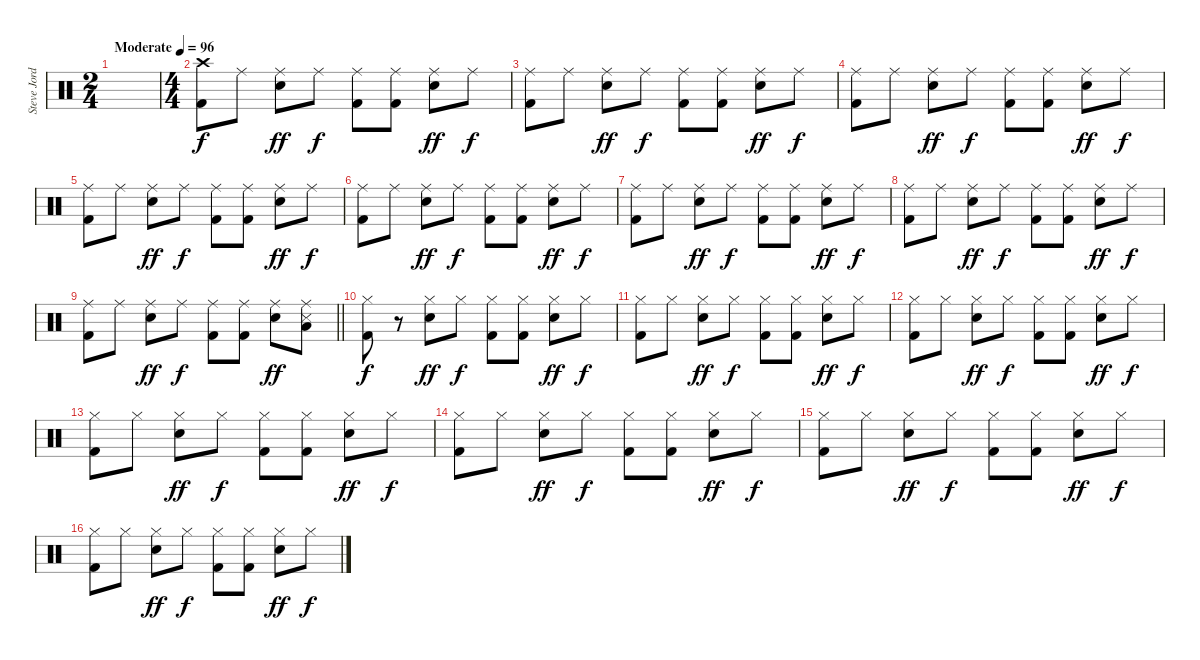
\track ("Steve Jordan" "Steve Jord") {instrument percussion}
\staff {score}
\articulation defaults
\ts (2 4)
\tempo (96 "Moderate")
\clef neutral
\ks c
|
\ts (4 4)
("Crash high (hit)" "Kick (hit) 2").8 "Ride (middle)".8 ("Ride (middle)" "Snare (hit) 2").8{dy ff} "Ride (middle)".8{dy f} ("Ride (middle)" "Kick (hit) 2").8 ("Ride (middle)" "Kick (hit) 2").8 ("Ride (middle)" "Snare (hit) 2").8{dy ff} "Ride (middle)".8{dy f} |
("Ride (middle)" "Kick (hit) 2").8 "Ride (middle)".8 ("Ride (middle)" "Snare (hit) 2").8{dy ff} "Ride (middle)".8{dy f} ("Ride (middle)" "Kick (hit) 2").8 ("Ride (middle)" "Kick (hit) 2").8 ("Ride (middle)" "Snare (hit) 2").8{dy ff} "Ride (middle)".8{dy f} |
("Ride (middle)" "Kick (hit) 2").8 "Ride (middle)".8 ("Ride (middle)" "Snare (hit) 2").8{dy ff} "Ride (middle)".8{dy f} ("Ride (middle)" "Kick (hit) 2").8 ("Ride (middle)" "Kick (hit) 2").8 ("Ride (middle)" "Snare (hit) 2").8{dy ff} "Ride (middle)".8{dy f} |
("Ride (middle)" "Kick (hit) 2").8 "Ride (middle)".8 ("Ride (middle)" "Snare (hit) 2").8{dy ff} "Ride (middle)".8{dy f} ("Ride (middle)" "Kick (hit) 2").8 ("Ride (middle)" "Kick (hit) 2").8 ("Ride (middle)" "Snare (hit) 2").8{dy ff} "Ride (middle)".8{dy f} |
("Ride (middle)" "Kick (hit) 2").8 "Ride (middle)".8 ("Ride (middle)" "Snare (hit) 2").8{dy ff} "Ride (middle)".8{dy f} ("Ride (middle)" "Kick (hit) 2").8 ("Ride (middle)" "Kick (hit) 2").8 ("Ride (middle)" "Snare (hit) 2").8{dy ff} "Ride (middle)".8{dy f} |
("Ride (middle)" "Kick (hit) 2").8 "Ride (middle)".8 ("Ride (middle)" "Snare (hit) 2").8{dy ff} "Ride (middle)".8{dy f} ("Ride (middle)" "Kick (hit) 2").8 ("Ride (middle)" "Kick (hit) 2").8 ("Ride (middle)" "Snare (hit) 2").8{dy ff} "Ride (middle)".8{dy f} |
("Ride (middle)" "Kick (hit) 2").8 "Ride (middle)".8 ("Ride (middle)" "Snare (hit) 2").8{dy ff} "Ride (middle)".8{dy f} ("Ride (middle)" "Kick (hit) 2").8 ("Ride (middle)" "Kick (hit) 2").8 ("Ride (middle)" "Snare (hit) 2").8{dy ff} "Ride (middle)".8{dy f} |
\barLineRight lightlight
("Ride (middle)" "Kick (hit) 2").8 "Ride (middle)".8 ("Ride (middle)" "Snare (hit) 2").8{dy ff} "Ride (middle)".8{dy f} ("Ride (middle)" "Kick (hit) 2").8 ("Ride (middle)" "Kick (hit) 2").8 ("Ride (middle)" "Snare (hit) 2").8{dy ff} ("Ride (middle)" "Low Tom (hit)" "Snare (side stick) 3").8 |
("Hi-Hat (closed)" "Kick (hit) 2").8{dy f} r.8 ("Hi-Hat (closed)" "Snare (hit) 2").8{dy ff} "Hi-Hat (closed)".8{dy f} ("Hi-Hat (closed)" "Kick (hit) 2").8 ("Hi-Hat (closed)" "Kick (hit) 2").8 ("Hi-Hat (closed)" "Snare (hit) 2").8{dy ff} "Hi-Hat (closed)".8{dy f} |
("Hi-Hat (closed)" "Kick (hit) 2").8 "Hi-Hat (closed)".8 ("Hi-Hat (closed)" "Snare (hit) 2").8{dy ff} "Hi-Hat (closed)".8{dy f} ("Hi-Hat (closed)" "Kick (hit) 2").8 ("Hi-Hat (closed)" "Kick (hit) 2").8 ("Hi-Hat (closed)" "Snare (hit) 2").8{dy ff} "Hi-Hat (closed)".8{dy f} |
("Hi-Hat (closed)" "Kick (hit) 2").8 "Hi-Hat (closed)".8 ("Hi-Hat (closed)" "Snare (hit) 2").8{dy ff} "Hi-Hat (closed)".8{dy f} ("Hi-Hat (closed)" "Kick (hit) 2").8 ("Hi-Hat (closed)" "Kick (hit) 2").8 ("Hi-Hat (closed)" "Snare (hit) 2").8{dy ff} "Hi-Hat (closed)".8{dy f} |
("Hi-Hat (closed)" "Kick (hit) 2").8 "Hi-Hat (closed)".8 ("Hi-Hat (closed)" "Snare (hit) 2").8{dy ff} "Hi-Hat (closed)".8{dy f} ("Hi-Hat (closed)" "Kick (hit) 2").8 ("Hi-Hat (closed)" "Kick (hit) 2").8 ("Hi-Hat (closed)" "Snare (hit) 2").8{dy ff} "Hi-Hat (closed)".8{dy f} |
("Hi-Hat (closed)" "Kick (hit) 2").8 "Hi-Hat (closed)".8 ("Hi-Hat (closed)" "Snare (hit) 2").8{dy ff} "Hi-Hat (closed)".8{dy f} ("Hi-Hat (closed)" "Kick (hit) 2").8 ("Hi-Hat (closed)" "Kick (hit) 2").8 ("Hi-Hat (closed)" "Snare (hit) 2").8{dy ff} "Hi-Hat (closed)".8{dy f} |
("Hi-Hat (closed)" "Kick (hit) 2").8 "Hi-Hat (closed)".8 ("Hi-Hat (closed)" "Snare (hit) 2").8{dy ff} "Hi-Hat (closed)".8{dy f} ("Hi-Hat (closed)" "Kick (hit) 2").8 ("Hi-Hat (closed)" "Kick (hit) 2").8 ("Hi-Hat (closed)" "Snare (hit) 2").8{dy ff} "Hi-Hat (closed)".8{dy f} |
("Hi-Hat (closed)" "Kick (hit) 2").8 "Hi-Hat (closed)".8 ("Hi-Hat (closed)" "Snare (hit) 2").8{dy ff} "Hi-Hat (closed)".8{dy f} ("Hi-Hat (closed)" "Kick (hit) 2").8 ("Hi-Hat (closed)" "Kick (hit) 2").8 ("Hi-Hat (closed)" "Snare (hit) 2").8{dy ff} "Hi-Hat (closed)".8{dy f}
